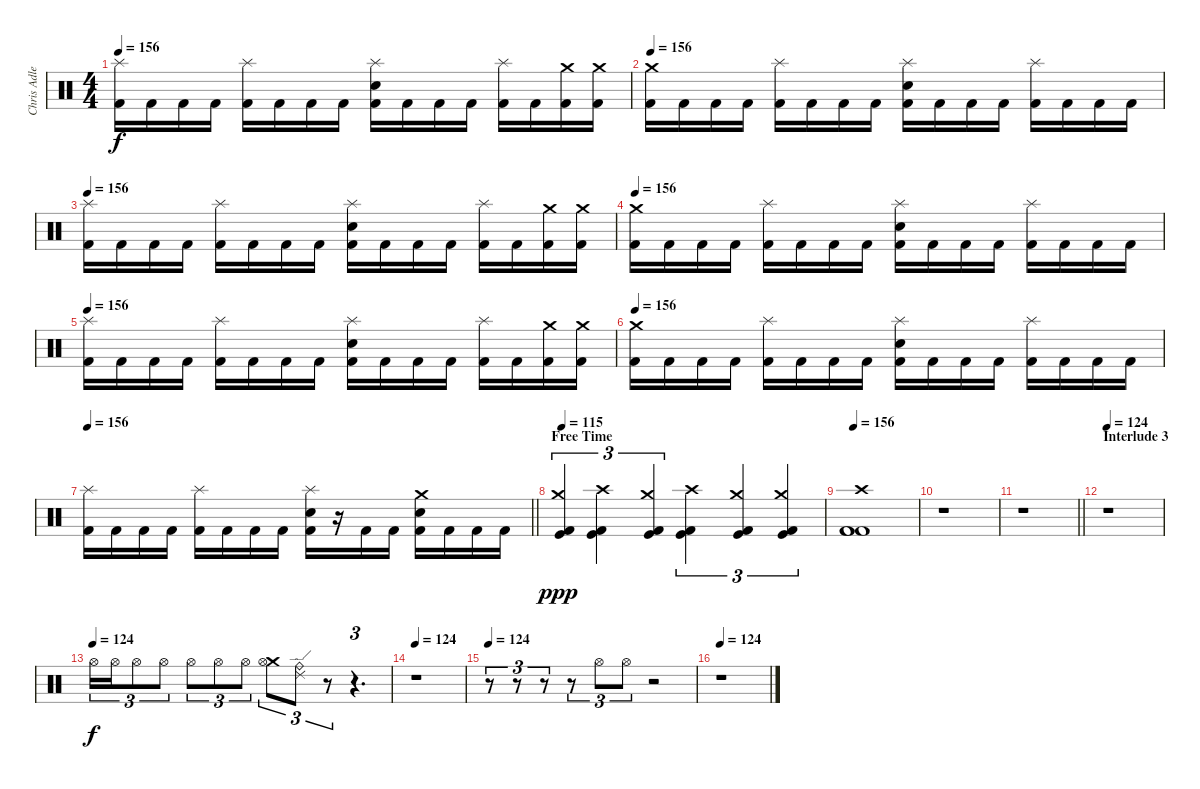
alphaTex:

\track ("Chris Adler" "Chris Adle") {instrument percussion}
\staff {score}
\articulation defaults
\ts (4 4)
\tempo 156
\clef neutral
\ks c
("Splash (hit)" "Kick (hit) 2").16{dy f} "Kick (hit) 2".16 "Kick (hit) 2".16 "Kick (hit) 2".16 ("Splash (hit)" "Kick (hit) 2").16 "Kick (hit) 2".16 "Kick (hit) 2".16 "Kick (hit) 2".16 ("Splash (hit)" "Electric Snare (hit)" "Kick (hit) 2").16 "Kick (hit) 2".16 "Kick (hit) 2".16 "Kick (hit) 2".16 ("Splash (hit)" "Kick (hit) 2").16 "Kick (hit) 2".16 ("Crash medium (hit)" "Kick (hit) 2").16 ("Crash medium (hit)" "Kick (hit) 2").16 |
\tempo 156
("Crash medium (hit)" "Kick (hit) 2").16 "Kick (hit) 2".16 "Kick (hit) 2".16 "Kick (hit) 2".16 ("Splash (hit)" "Kick (hit) 2").16 "Kick (hit) 2".16 "Kick (hit) 2".16 "Kick (hit) 2".16 ("Splash (hit)" "Electric Snare (hit)" "Kick (hit) 2").16 "Kick (hit) 2".16 "Kick (hit) 2".16 "Kick (hit) 2".16 ("Splash (hit)" "Kick (hit) 2").16 "Kick (hit) 2".16 "Kick (hit) 2".16 "Kick (hit) 2".16 |
\tempo 156
("Splash (hit)" "Kick (hit) 2").16 "Kick (hit) 2".16 "Kick (hit) 2".16 "Kick (hit) 2".16 ("Splash (hit)" "Kick (hit) 2").16 "Kick (hit) 2".16 "Kick (hit) 2".16 "Kick (hit) 2".16 ("Splash (hit)" "Electric Snare (hit)" "Kick (hit) 2").16 "Kick (hit) 2".16 "Kick (hit) 2".16 "Kick (hit) 2".16 ("Splash (hit)" "Kick (hit) 2").16 "Kick (hit) 2".16 ("Crash medium (hit)" "Kick (hit) 2").16 ("Crash medium (hit)" "Kick (hit) 2").16 |
\tempo 156
("Crash medium (hit)" "Kick (hit) 2").16 "Kick (hit) 2".16 "Kick (hit) 2".16 "Kick (hit) 2".16 ("Splash (hit)" "Kick (hit) 2").16 "Kick (hit) 2".16 "Kick (hit) 2".16 "Kick (hit) 2".16 ("Splash (hit)" "Electric Snare (hit)" "Kick (hit) 2").16 "Kick (hit) 2".16 "Kick (hit) 2".16 "Kick (hit) 2".16 ("Splash (hit)" "Kick (hit) 2").16 "Kick (hit) 2".16 "Kick (hit) 2".16 "Kick (hit) 2".16 |
\tempo 156
("Splash (hit)" "Kick (hit) 2").16 "Kick (hit) 2".16 "Kick (hit) 2".16 "Kick (hit) 2".16 ("Splash (hit)" "Kick (hit) 2").16 "Kick (hit) 2".16 "Kick (hit) 2".16 "Kick (hit) 2".16 ("Splash (hit)" "Electric Snare (hit)" "Kick (hit) 2").16 "Kick (hit) 2".16 "Kick (hit) 2".16 "Kick (hit) 2".16 ("Splash (hit)" "Kick (hit) 2").16 "Kick (hit) 2".16 ("Crash medium (hit)" "Kick (hit) 2").16 ("Crash medium (hit)" "Kick (hit) 2").16 |
\tempo 156
("Crash medium (hit)" "Kick (hit) 2").16 "Kick (hit) 2".16 "Kick (hit) 2".16 "Kick (hit) 2".16 ("Splash (hit)" "Kick (hit) 2").16 "Kick (hit) 2".16 "Kick (hit) 2".16 "Kick (hit) 2".16 ("Splash (hit)" "Electric Snare (hit)" "Kick (hit) 2").16 "Kick (hit) 2".16 "Kick (hit) 2".16 "Kick (hit) 2".16 ("Splash (hit)" "Kick (hit) 2").16 "Kick (hit) 2".16 "Kick (hit) 2".16 "Kick (hit) 2".16 |
\tempo 156
\barLineRight lightlight
("Splash (hit)" "Kick (hit) 2").16 "Kick (hit) 2".16 "Kick (hit) 2".16 "Kick (hit) 2".16 ("Splash (hit)" "Kick (hit) 2").16 "Kick (hit) 2".16 "Kick (hit) 2".16 "Kick (hit) 2".16 ("Splash (hit)" "Electric Snare (hit)" "Kick (hit) 2").16 r.16 "Kick (hit) 2".16 "Kick (hit) 2".16 ("Crash medium (hit)" "Electric Snare (hit)" "Kick (hit) 2").16 "Kick (hit) 2".16 "Kick (hit) 2".16 "Kick (hit) 2".16 |
\section ("" "Free Time")
\tempo 156
\tempo 115
("Crash medium (hit)" "Kick (hit)" "Kick (hit) 2").4{tu (3 2) dy ppp} ("Crash high (hit)" "Kick (hit)" "Kick (hit) 2").4{tu (3 2)} ("Crash medium (hit)" "Kick (hit)" "Kick (hit) 2").4{tu (3 2)} ("Crash high (hit)" "Kick (hit)" "Kick (hit) 2").4{tu (3 2)} ("Crash medium (hit)" "Kick (hit)" "Kick (hit) 2").4{tu (3 2)} ("Crash medium (hit)" "Kick (hit)" "Kick (hit) 2").4{tu (3 2)} |
\tempo 156
("Crash high (hit)" "Kick (hit) 2" "Kick (hit) 2" "Kick (hit) 2").1 |
r.1 |
\barLineRight lightlight
r.1 |
\section ("" "Interlude 3")
\tempo 124
r.1 |
\tempo (124)
"Hi-Hat (open)".16{tu (3 2) dy f} "Hi-Hat (open)".16{tu (3 2)} "Hi-Hat (open)".8{tu (3 2)} "Hi-Hat (open)".8{tu (3 2)} "Hi-Hat (open)".8{tu (3 2)} "Hi-Hat (open)".8{tu (3 2)} "Hi-Hat (open)".8{tu (3 2)} ("Crash medium (hit)" "Hi-Hat (open)").8{tu (3 2)} ("Ride (bell)" "Ride (edge) 2").8{tu (3 2)} r.8{tu (3 2)} r.4{d tu (3 2)} |
\tempo 124
r.1 |
\tempo 124
r.8{tu (3 2)} r.8{tu (3 2)} r.8{tu (3 2)} r.8{tu (3 2)} "Hi-Hat (open)".8{tu (3 2)} "Hi-Hat (open)".8{tu (3 2)} r.2 |
\tempo 124
r.1
